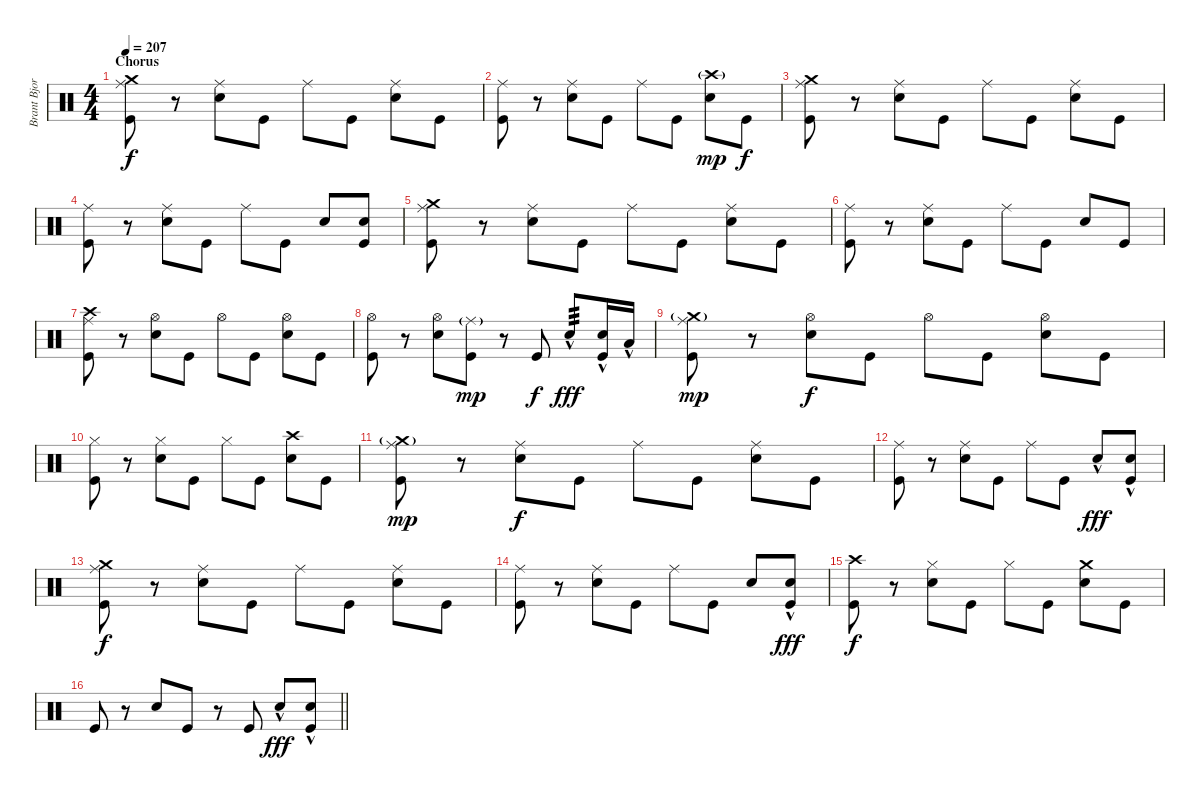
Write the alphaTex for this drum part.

\track ("Brant Bjork - Drums" "Brant Bjor") {instrument percussion}
\staff {score}
\articulation defaults
\ts (4 4)
\section ("" "Chorus")
\tempo 207
\clef neutral
\ks c
("Ride (middle)" "Crash medium (hit)" "Kick (hit)").8{dy f} r.8 ("Ride (middle)" "Snare (hit) 2").8 "Kick (hit)".8 "Ride (middle)".8 "Kick (hit)".8 ("Ride (middle)" "Snare (hit) 2").8 "Kick (hit)".8 |
("Ride (middle)" "Kick (hit)").8 r.8 ("Ride (middle)" "Snare (hit) 2").8 "Kick (hit)".8 "Ride (middle)".8 "Kick (hit)".8 ("Crash high (hit)"{g} "Snare (hit) 2").8{dy mp} "Kick (hit)".8{dy f} |
("Ride (middle)" "Crash medium (hit)" "Kick (hit)").8 r.8 ("Ride (middle)" "Snare (hit) 2").8 "Kick (hit)".8 "Ride (middle)".8 "Kick (hit)".8 ("Ride (middle)" "Snare (hit) 2").8 "Kick (hit)".8 |
("Ride (middle)" "Kick (hit)").8 r.8 ("Ride (middle)" "Snare (hit) 2").8 "Kick (hit)".8 "Ride (middle)".8 "Kick (hit)".8 "Snare (hit) 2".8 ("Snare (hit) 2" "Kick (hit)").8 |
("Ride (middle)" "Crash medium (hit)" "Kick (hit)").8 r.8 ("Ride (middle)" "Snare (hit) 2").8 "Kick (hit)".8 "Ride (middle)".8 "Kick (hit)".8 ("Ride (middle)" "Snare (hit) 2").8 "Kick (hit)".8 |
("Ride (middle)" "Kick (hit)").8 r.8 ("Ride (middle)" "Snare (hit) 2").8 "Kick (hit)".8 "Ride (middle)".8 "Kick (hit)".8 "Snare (hit) 2".8 "Kick (hit)".8 |
("Ride (middle)" "Crash high (hit)" "Kick (hit)").8 r.8 ("Hi-Hat (open)" "Snare (hit) 2").8 "Kick (hit)".8 "Hi-Hat (open)".8 "Kick (hit)".8 ("Hi-Hat (open)" "Snare (hit) 2").8 "Kick (hit)".8 |
("Hi-Hat (open)" "Kick (hit)").8 r.8 ("Hi-Hat (open)" "Snare (hit) 2").8 ("Ride (middle)"{g} "Kick (hit)").8{dy mp} r.8 "Kick (hit)".8{dy f} "Snare (hit) 2"{hac}.8{tp 3 dy fff} ("Snare (hit) 2"{hac} "Kick (hit)").16 "Low Tom (hit)"{hac}.16 |
("Ride (middle)" "Crash medium (hit)"{g} "Kick (hit)").8{dy mp} r.8 ("Hi-Hat (open)" "Snare (hit) 2").8{dy f} "Kick (hit)".8 "Hi-Hat (open)".8 "Kick (hit)".8 ("Hi-Hat (open)" "Snare (hit) 2").8 "Kick (hit)".8 |
("Hi-Hat (closed)" "Kick (hit)").8 r.8 ("Hi-Hat (closed)" "Snare (hit) 2").8 "Kick (hit)".8 "Hi-Hat (closed)".8 "Kick (hit)".8 ("Crash high (hit)" "Snare (hit) 2").8 "Kick (hit)".8 |
("Ride (middle)" "Crash medium (hit)"{g} "Kick (hit)").8{dy mp} r.8 ("Ride (middle)" "Snare (hit) 2").8{dy f} "Kick (hit)".8 "Ride (middle)".8 "Kick (hit)".8 ("Ride (middle)" "Snare (hit) 2").8 "Kick (hit)".8 |
("Ride (middle)" "Kick (hit)").8 r.8 ("Ride (middle)" "Snare (hit) 2").8 "Kick (hit)".8 "Ride (middle)".8 "Kick (hit)".8 "Snare (hit) 2"{hac}.8{dy fff} ("Snare (hit) 2"{hac} "Kick (hit)").8 |
("Ride (middle)" "Crash medium (hit)" "Kick (hit)").8{dy f} r.8 ("Ride (middle)" "Snare (hit) 2").8 "Kick (hit)".8 "Ride (middle)".8 "Kick (hit)".8 ("Ride (middle)" "Snare (hit) 2").8 "Kick (hit)".8 |
("Ride (middle)" "Kick (hit)").8 r.8 ("Ride (middle)" "Snare (hit) 2").8 "Kick (hit)".8 "Ride (middle)".8 "Kick (hit)".8 "Snare (hit) 2".8 ("Snare (hit) 2"{hac} "Kick (hit)").8{dy fff} |
("Crash high (hit)" "Kick (hit)").8{dy f} r.8 ("Hi-Hat (closed)" "Snare (hit) 2").8 "Kick (hit)".8 "Hi-Hat (closed)".8 "Kick (hit)".8 ("Crash medium (hit)" "Snare (hit) 2").8 "Kick (hit)".8 |
\barLineRight lightlight "Kick (hit)".8
r.8 "Snare (hit) 2".8 "Kick (hit)".8 r.8 "Kick (hit)".8 "Snare (hit) 2"{hac}.8{dy fff} ("Snare (hit) 2"{hac} "Kick (hit)").8
